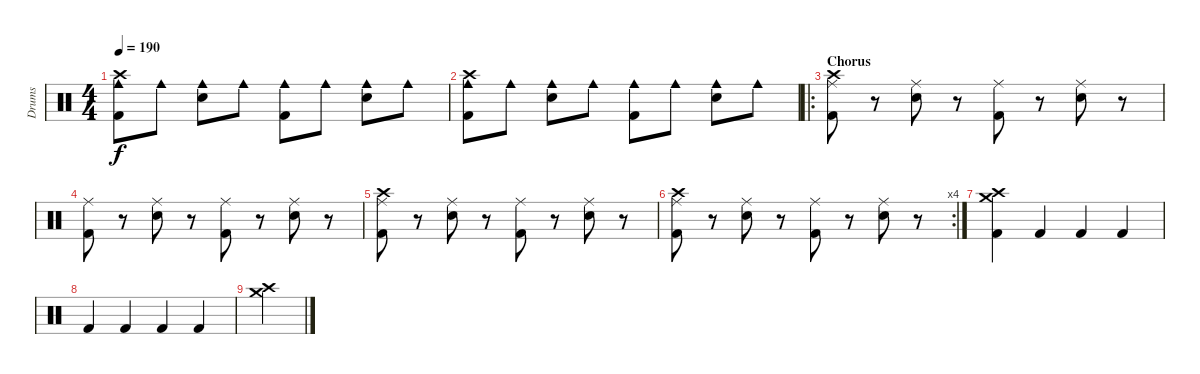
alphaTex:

\track ("Drums" "Drums") {instrument percussion}
\staff {score}
\articulation defaults
\ts (4 4)
\tempo 190
\clef neutral
\ks c
("Crash high (hit)" "Cowbell medium (hit)" "Kick (hit) 2").8{dy f} "Cowbell medium (hit)".8 ("Cowbell medium (hit)" "Electric Snare (hit)").8 "Cowbell medium (hit)".8 ("Cowbell medium (hit)" "Kick (hit) 2").8 "Cowbell medium (hit)".8 ("Cowbell medium (hit)" "Electric Snare (hit)").8 "Cowbell medium (hit)".8 |
("Crash high (hit)" "Cowbell medium (hit)" "Kick (hit) 2").8 "Cowbell medium (hit)".8 ("Cowbell medium (hit)" "Electric Snare (hit)").8 "Cowbell medium (hit)".8 ("Cowbell medium (hit)" "Kick (hit) 2").8 "Cowbell medium (hit)".8 ("Cowbell medium (hit)" "Electric Snare (hit)").8 "Cowbell medium (hit)".8 |
\ro
\section ("" "Chorus")
("Crash high (hit)" "Ride (middle)" "Kick (hit) 2").8 r.8 ("Ride (middle)" "Electric Snare (hit)").8 r.8 ("Ride (middle)" "Kick (hit) 2").8 r.8 ("Ride (middle)" "Electric Snare (hit)").8 r.8 |
("Ride (middle)" "Kick (hit) 2").8 r.8 ("Ride (middle)" "Electric Snare (hit)").8 r.8 ("Ride (middle)" "Kick (hit) 2").8 r.8 ("Ride (middle)" "Electric Snare (hit)").8 r.8 |
("Crash high (hit)" "Ride (middle)" "Kick (hit) 2").8 r.8 ("Ride (middle)" "Electric Snare (hit)").8 r.8 ("Ride (middle)" "Kick (hit) 2").8 r.8 ("Ride (middle)" "Electric Snare (hit)").8 r.8 |
\rc 4
("Crash high (hit)" "Ride (middle)" "Kick (hit) 2").8 r.8 ("Ride (middle)" "Electric Snare (hit)").8 r.8 ("Ride (middle)" "Kick (hit) 2").8 r.8 ("Ride (middle)" "Electric Snare (hit)").8 r.8 |
("Crash medium (hit)" "Crash high (hit)" "Kick (hit) 2").4 "Kick (hit) 2".4 "Kick (hit) 2".4 "Kick (hit) 2".4 |
"Kick (hit) 2".4 "Kick (hit) 2".4 "Kick (hit) 2".4 "Kick (hit) 2".4 |
("Crash medium (hit)" "Crash high (hit)").4
